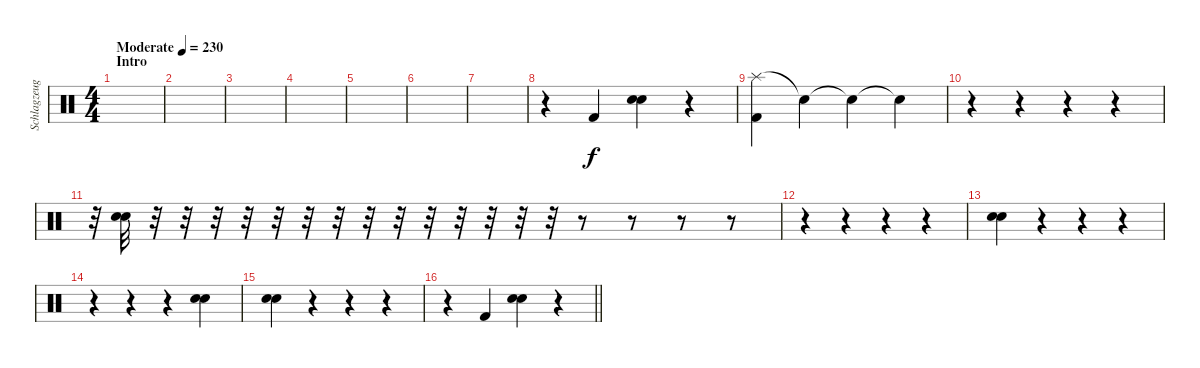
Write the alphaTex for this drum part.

\track ("Schlagzeug" "Schlagzeug") {instrument percussion}
\staff {score}
\articulation defaults
\ts (4 4)
\section ("" "Intro")
\tempo (230 "Moderate")
\clef neutral
\ks c
|
|
|
|
|
|
|
r.4 "Kick (hit) 2".4 ("Electric Snare (hit)" "Snare (hit) 2").4 r.4 |
("Splash (hit)" "Kick (hit) 2").4 "Snare (hit)"{t}.4 "Snare (hit)"{t}.4 "Snare (hit)"{t}.4 |
r.4 r.4 r.4 r.4 |
r.32 ("Electric Snare (hit)" "Snare (hit) 2").32 r.32 r.32 r.32 r.32 r.32 r.32 r.32 r.32 r.32 r.32 r.32 r.32 r.32 r.32 r.8 r.8 r.8 r.8 |
r.4 r.4 r.4 r.4 |
("Electric Snare (hit)" "Snare (hit) 2").4 r.4 r.4 r.4 |
r.4 r.4 r.4 ("Electric Snare (hit)" "Snare (hit) 2").4 |
("Electric Snare (hit)" "Snare (hit) 2").4 r.4 r.4 r.4 |
\barLineRight lightlight
r.4 "Kick (hit) 2".4 ("Electric Snare (hit)" "Snare (hit) 2").4 r.4
